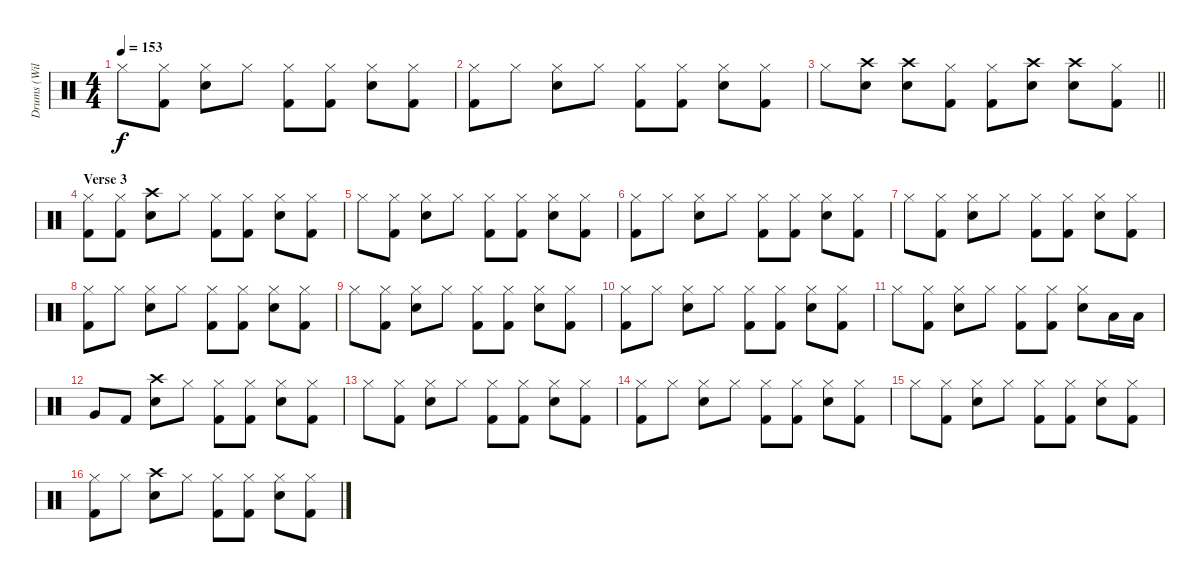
\track ("Drums (Williams)" "Drums (Wil") {instrument percussion}
\staff {score}
\articulation defaults
\ts (4 4)
\tempo 153
\clef neutral
\ks c "Hi-Hat (closed)".8{dy f}
("Hi-Hat (closed)" "Kick (hit) 2").8 ("Hi-Hat (closed)" "Electric Snare (hit)").8 "Hi-Hat (closed)".8 ("Hi-Hat (closed)" "Kick (hit) 2").8 ("Hi-Hat (closed)" "Kick (hit) 2").8 ("Hi-Hat (closed)" "Electric Snare (hit)").8 ("Hi-Hat (closed)" "Kick (hit) 2").8 |
("Hi-Hat (closed)" "Kick (hit) 2").8 "Hi-Hat (closed)".8 ("Hi-Hat (closed)" "Electric Snare (hit)").8 "Hi-Hat (closed)".8 ("Hi-Hat (closed)" "Kick (hit) 2").8 ("Hi-Hat (closed)" "Kick (hit) 2").8 ("Hi-Hat (closed)" "Electric Snare (hit)").8 ("Hi-Hat (closed)" "Kick (hit) 2").8 |
\barLineRight lightlight "Hi-Hat (closed)".8
("Crash high (hit)" "Electric Snare (hit)").8 ("Crash high (hit)" "Electric Snare (hit)").8 ("Hi-Hat (closed)" "Kick (hit) 2").8 ("Hi-Hat (closed)" "Kick (hit) 2").8 ("Crash high (hit)" "Electric Snare (hit)").8 ("Crash high (hit)" "Electric Snare (hit)").8 ("Hi-Hat (closed)" "Kick (hit) 2").8 |
\section ("" "Verse 3")
("Hi-Hat (closed)" "Kick (hit) 2").8 ("Hi-Hat (closed)" "Kick (hit) 2").8 ("Crash high (hit)" "Electric Snare (hit)").8 "Hi-Hat (closed)".8 ("Hi-Hat (closed)" "Kick (hit) 2").8 ("Hi-Hat (closed)" "Kick (hit) 2").8 ("Hi-Hat (closed)" "Electric Snare (hit)").8 ("Hi-Hat (closed)" "Kick (hit) 2").8 |
"Hi-Hat (closed)".8 ("Hi-Hat (closed)" "Kick (hit) 2").8 ("Hi-Hat (closed)" "Electric Snare (hit)").8 "Hi-Hat (closed)".8 ("Hi-Hat (closed)" "Kick (hit) 2").8 ("Hi-Hat (closed)" "Kick (hit) 2").8 ("Hi-Hat (closed)" "Electric Snare (hit)").8 ("Hi-Hat (closed)" "Kick (hit) 2").8 |
("Hi-Hat (closed)" "Kick (hit) 2").8 "Hi-Hat (closed)".8 ("Hi-Hat (closed)" "Electric Snare (hit)").8 "Hi-Hat (closed)".8 ("Hi-Hat (closed)" "Kick (hit) 2").8 ("Hi-Hat (closed)" "Kick (hit) 2").8 ("Hi-Hat (closed)" "Electric Snare (hit)").8 ("Hi-Hat (closed)" "Kick (hit) 2").8 |
"Hi-Hat (closed)".8 ("Hi-Hat (closed)" "Kick (hit) 2").8 ("Hi-Hat (closed)" "Electric Snare (hit)").8 "Hi-Hat (closed)".8 ("Hi-Hat (closed)" "Kick (hit) 2").8 ("Hi-Hat (closed)" "Kick (hit) 2").8 ("Hi-Hat (closed)" "Electric Snare (hit)").8 ("Hi-Hat (closed)" "Kick (hit) 2").8 |
("Hi-Hat (closed)" "Kick (hit) 2").8 "Hi-Hat (closed)".8 ("Hi-Hat (closed)" "Electric Snare (hit)").8 "Hi-Hat (closed)".8 ("Hi-Hat (closed)" "Kick (hit) 2").8 ("Hi-Hat (closed)" "Kick (hit) 2").8 ("Hi-Hat (closed)" "Electric Snare (hit)").8 ("Hi-Hat (closed)" "Kick (hit) 2").8 |
"Hi-Hat (closed)".8 ("Hi-Hat (closed)" "Kick (hit) 2").8 ("Hi-Hat (closed)" "Electric Snare (hit)").8 "Hi-Hat (closed)".8 ("Hi-Hat (closed)" "Kick (hit) 2").8 ("Hi-Hat (closed)" "Kick (hit) 2").8 ("Hi-Hat (closed)" "Electric Snare (hit)").8 ("Hi-Hat (closed)" "Kick (hit) 2").8 |
("Hi-Hat (closed)" "Kick (hit) 2").8 "Hi-Hat (closed)".8 ("Hi-Hat (closed)" "Electric Snare (hit)").8 "Hi-Hat (closed)".8 ("Hi-Hat (closed)" "Kick (hit) 2").8 ("Hi-Hat (closed)" "Kick (hit) 2").8 ("Hi-Hat (closed)" "Electric Snare (hit)").8 ("Hi-Hat (closed)" "Kick (hit) 2").8 |
"Hi-Hat (closed)".8 ("Hi-Hat (closed)" "Kick (hit) 2").8 ("Hi-Hat (closed)" "Electric Snare (hit)").8 "Hi-Hat (closed)".8 ("Hi-Hat (closed)" "Kick (hit) 2").8 ("Hi-Hat (closed)" "Kick (hit) 2").8 ("Hi-Hat (closed)" "Electric Snare (hit)").8 "Low Tom (hit)".16 "Low Tom (hit)".16 |
"Very Low Tom (hit)".8 "Kick (hit) 2".8 ("Crash high (hit)" "Electric Snare (hit)").8 "Hi-Hat (closed)".8 ("Hi-Hat (closed)" "Kick (hit) 2").8 ("Hi-Hat (closed)" "Kick (hit) 2").8 ("Hi-Hat (closed)" "Electric Snare (hit)").8 ("Hi-Hat (closed)" "Kick (hit) 2").8 |
"Hi-Hat (closed)".8 ("Hi-Hat (closed)" "Kick (hit) 2").8 ("Hi-Hat (closed)" "Electric Snare (hit)").8 "Hi-Hat (closed)".8 ("Hi-Hat (closed)" "Kick (hit) 2").8 ("Hi-Hat (closed)" "Kick (hit) 2").8 ("Hi-Hat (closed)" "Electric Snare (hit)").8 ("Hi-Hat (closed)" "Kick (hit) 2").8 |
("Hi-Hat (closed)" "Kick (hit) 2").8 "Hi-Hat (closed)".8 ("Hi-Hat (closed)" "Electric Snare (hit)").8 "Hi-Hat (closed)".8 ("Hi-Hat (closed)" "Kick (hit) 2").8 ("Hi-Hat (closed)" "Kick (hit) 2").8 ("Hi-Hat (closed)" "Electric Snare (hit)").8 ("Hi-Hat (closed)" "Kick (hit) 2").8 |
"Hi-Hat (closed)".8 ("Hi-Hat (closed)" "Kick (hit) 2").8 ("Hi-Hat (closed)" "Electric Snare (hit)").8 "Hi-Hat (closed)".8 ("Hi-Hat (closed)" "Kick (hit) 2").8 ("Hi-Hat (closed)" "Kick (hit) 2").8 ("Hi-Hat (closed)" "Electric Snare (hit)").8 ("Hi-Hat (closed)" "Kick (hit) 2").8 |
("Hi-Hat (closed)" "Kick (hit) 2").8 "Hi-Hat (closed)".8 ("Crash high (hit)" "Electric Snare (hit)").8 "Hi-Hat (closed)".8 ("Hi-Hat (closed)" "Kick (hit) 2").8 ("Hi-Hat (closed)" "Kick (hit) 2").8 ("Hi-Hat (closed)" "Electric Snare (hit)").8 ("Hi-Hat (closed)" "Kick (hit) 2").8
